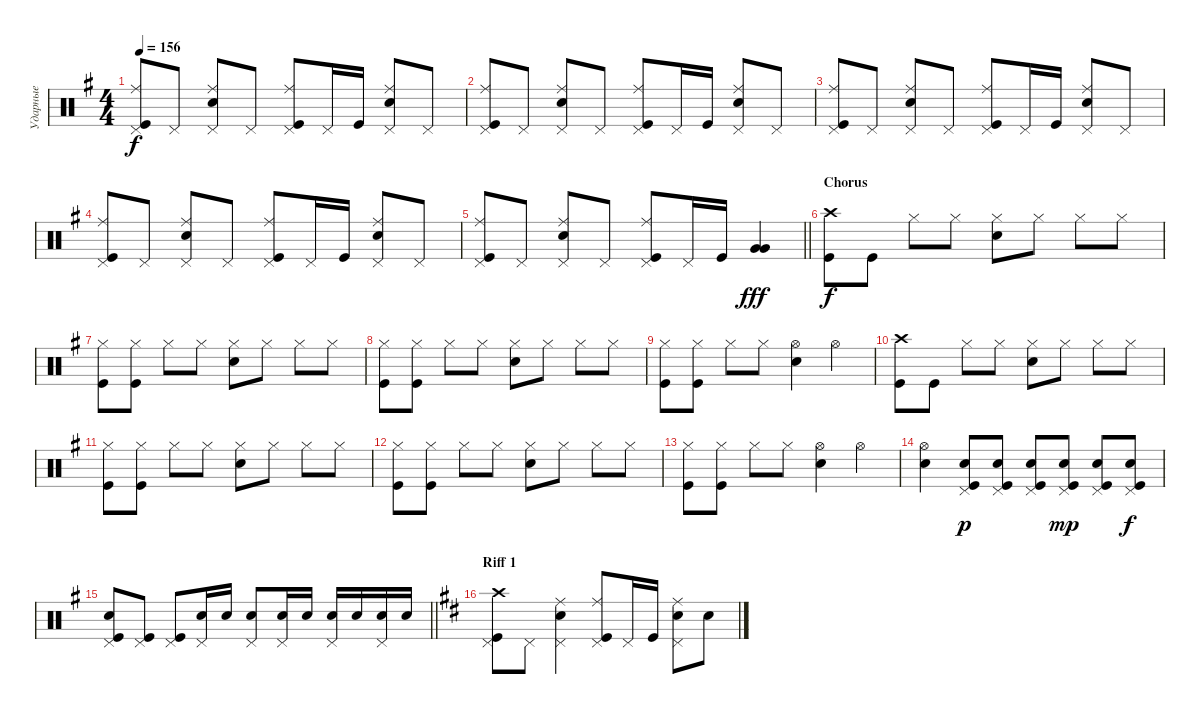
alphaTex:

\track ("Ударные" "Ударные") {instrument percussion}
\staff {score}
\articulation defaults
\ts (4 4)
\tempo 156
\clef neutral
\ks eminor
("Kick (hit)" "Ride (middle)" "Pedal Hi-Hat (hit)").8{dy f} "Pedal Hi-Hat (hit)".8 ("Snare (hit) 2" "Ride (middle)" "Pedal Hi-Hat (hit)").8 "Pedal Hi-Hat (hit)".8 ("Kick (hit)" "Ride (middle)" "Pedal Hi-Hat (hit)").8 "Pedal Hi-Hat (hit)".16 "Kick (hit)".16 ("Snare (hit) 2" "Ride (middle)" "Pedal Hi-Hat (hit)").8 "Pedal Hi-Hat (hit)".8 |
("Kick (hit)" "Ride (middle)" "Pedal Hi-Hat (hit)").8 "Pedal Hi-Hat (hit)".8 ("Snare (hit) 2" "Ride (middle)" "Pedal Hi-Hat (hit)").8 "Pedal Hi-Hat (hit)".8 ("Kick (hit)" "Ride (middle)" "Pedal Hi-Hat (hit)").8 "Pedal Hi-Hat (hit)".16 "Kick (hit)".16 ("Snare (hit) 2" "Ride (middle)" "Pedal Hi-Hat (hit)").8 "Pedal Hi-Hat (hit)".8 |
("Kick (hit)" "Ride (middle)" "Pedal Hi-Hat (hit)").8 "Pedal Hi-Hat (hit)".8 ("Snare (hit) 2" "Ride (middle)" "Pedal Hi-Hat (hit)").8 "Pedal Hi-Hat (hit)".8 ("Kick (hit)" "Ride (middle)" "Pedal Hi-Hat (hit)").8 "Pedal Hi-Hat (hit)".16 "Kick (hit)".16 ("Snare (hit) 2" "Ride (middle)" "Pedal Hi-Hat (hit)").8 "Pedal Hi-Hat (hit)".8 |
("Kick (hit)" "Ride (middle)" "Pedal Hi-Hat (hit)").8 "Pedal Hi-Hat (hit)".8 ("Snare (hit) 2" "Ride (middle)" "Pedal Hi-Hat (hit)").8 "Pedal Hi-Hat (hit)".8 ("Kick (hit)" "Ride (middle)" "Pedal Hi-Hat (hit)").8 "Pedal Hi-Hat (hit)".16 "Kick (hit)".16 ("Snare (hit) 2" "Ride (middle)" "Pedal Hi-Hat (hit)").8 "Pedal Hi-Hat (hit)".8 |
\barLineRight lightlight
("Kick (hit)" "Pedal Hi-Hat (hit)" "Ride (middle)").8 "Pedal Hi-Hat (hit)".8 ("Snare (hit) 2" "Pedal Hi-Hat (hit)" "Ride (middle)").8 "Pedal Hi-Hat (hit)".8 ("Kick (hit)" "Pedal Hi-Hat (hit)" "Ride (middle)").8 "Pedal Hi-Hat (hit)".16 "Kick (hit)".16 ("Very Low Tom (hit)" "Very Low Tom (hit)").4{bd 240 dy fff} |
\section ("" "Chorus")
("Kick (hit)" "Crash high (hit)").8{dy f} "Kick (hit)".8 "Hi-Hat (closed)".8 "Hi-Hat (closed)".8 ("Hi-Hat (closed)" "Snare (hit) 2").8 "Hi-Hat (closed)".8 "Hi-Hat (closed)".8 "Hi-Hat (closed)".8 |
("Hi-Hat (closed)" "Kick (hit)").8 ("Hi-Hat (closed)" "Kick (hit)").8 "Hi-Hat (closed)".8 "Hi-Hat (closed)".8 ("Hi-Hat (closed)" "Snare (hit) 2").8 "Hi-Hat (closed)".8 "Hi-Hat (closed)".8 "Hi-Hat (closed)".8 |
("Hi-Hat (closed)" "Kick (hit)").8 ("Hi-Hat (closed)" "Kick (hit)").8 "Hi-Hat (closed)".8 "Hi-Hat (closed)".8 ("Hi-Hat (closed)" "Snare (hit) 2").8 "Hi-Hat (closed)".8 "Hi-Hat (closed)".8 "Hi-Hat (closed)".8 |
("Hi-Hat (closed)" "Kick (hit)").8 ("Hi-Hat (closed)" "Kick (hit)").8 "Hi-Hat (closed)".8 "Hi-Hat (closed)".8 ("Hi-Hat (open)" "Snare (hit) 2").4 "Hi-Hat (open)".4 |
("Kick (hit)" "Crash high (hit)").8 "Kick (hit)".8 "Hi-Hat (closed)".8 "Hi-Hat (closed)".8 ("Hi-Hat (closed)" "Snare (hit) 2").8 "Hi-Hat (closed)".8 "Hi-Hat (closed)".8 "Hi-Hat (closed)".8 |
("Hi-Hat (closed)" "Kick (hit)").8 ("Hi-Hat (closed)" "Kick (hit)").8 "Hi-Hat (closed)".8 "Hi-Hat (closed)".8 ("Hi-Hat (closed)" "Snare (hit) 2").8 "Hi-Hat (closed)".8 "Hi-Hat (closed)".8 "Hi-Hat (closed)".8 |
("Hi-Hat (closed)" "Kick (hit)").8 ("Hi-Hat (closed)" "Kick (hit)").8 "Hi-Hat (closed)".8 "Hi-Hat (closed)".8 ("Hi-Hat (closed)" "Snare (hit) 2").8 "Hi-Hat (closed)".8 "Hi-Hat (closed)".8 "Hi-Hat (closed)".8 |
("Hi-Hat (closed)" "Kick (hit)").8 ("Hi-Hat (closed)" "Kick (hit)").8 "Hi-Hat (closed)".8 "Hi-Hat (closed)".8 ("Hi-Hat (open)" "Snare (hit) 2").4 "Hi-Hat (open)".4 |
("Snare (hit) 2" "Hi-Hat (open)").4 ("Pedal Hi-Hat (hit)" "Kick (hit)" "Snare (hit) 2").8{dy p} ("Pedal Hi-Hat (hit)" "Kick (hit)" "Snare (hit) 2").8 ("Pedal Hi-Hat (hit)" "Kick (hit)" "Snare (hit) 2").8 ("Pedal Hi-Hat (hit)" "Kick (hit)" "Snare (hit) 2").8{dy mp} ("Pedal Hi-Hat (hit)" "Kick (hit)" "Snare (hit) 2").8 ("Pedal Hi-Hat (hit)" "Kick (hit)" "Snare (hit) 2").8{dy f} |
\barLineRight lightlight
("Kick (hit)" "Pedal Hi-Hat (hit)" "Snare (hit) 2").8 ("Kick (hit)" "Pedal Hi-Hat (hit)").8 ("Kick (hit)" "Pedal Hi-Hat (hit)").8 ("Snare (hit) 2" "Pedal Hi-Hat (hit)").16 "Snare (hit) 2".16 ("Snare (hit) 2" "Pedal Hi-Hat (hit)").8 ("Snare (hit) 2" "Pedal Hi-Hat (hit)").16 "Snare (hit) 2".16 ("Snare (hit) 2" "Pedal Hi-Hat (hit)").16 "Snare (hit) 2".16 ("Snare (hit) 2" "Pedal Hi-Hat (hit)").16 "Snare (hit) 2".16 |
\section ("" "Riff 1")
\ks bminor
("Kick (hit)" "Crash high (hit)" "Pedal Hi-Hat (hit)").8 "Pedal Hi-Hat (hit)".8 ("Snare (hit) 2" "Pedal Hi-Hat (hit)" "Ride (middle)").4 ("Kick (hit)" "Pedal Hi-Hat (hit)" "Ride (middle)").8 "Pedal Hi-Hat (hit)".16 "Kick (hit)".16 ("Snare (hit) 2" "Pedal Hi-Hat (hit)" "Ride (middle)").8 "Snare (hit) 2".8
